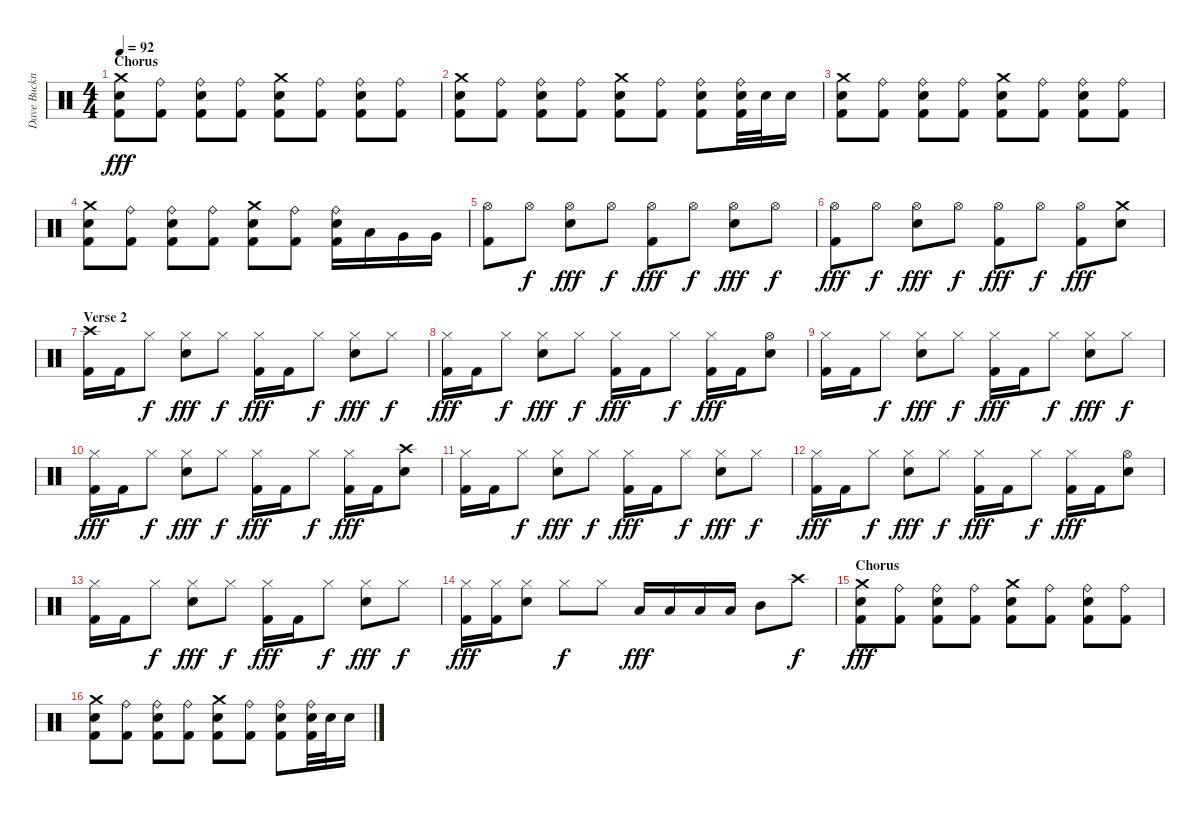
\track ("Dave Buckner" "Dave Buckn") {instrument percussion}
\staff {score}
\articulation defaults
\ts (4 4)
\section ("" "Chorus")
\tempo 92
\clef neutral
\ks c
("Crash medium (hit)" "Electric Snare (hit)" "Kick (hit) 2").8{dy fff} ("Ride (bell)" "Kick (hit) 2").8 ("Ride (bell)" "Electric Snare (hit)" "Kick (hit) 2").8 ("Ride (bell)" "Kick (hit) 2").8 ("Crash medium (hit)" "Electric Snare (hit)" "Kick (hit) 2").8 ("Ride (bell)" "Kick (hit) 2").8 ("Ride (bell)" "Electric Snare (hit)" "Kick (hit) 2").8 ("Ride (bell)" "Kick (hit) 2").8 |
("Crash medium (hit)" "Electric Snare (hit)" "Kick (hit) 2").8 ("Ride (bell)" "Kick (hit) 2").8 ("Ride (bell)" "Electric Snare (hit)" "Kick (hit) 2").8 ("Ride (bell)" "Kick (hit) 2").8 ("Crash medium (hit)" "Electric Snare (hit)" "Kick (hit) 2").8 ("Ride (bell)" "Kick (hit) 2").8 ("Ride (bell)" "Electric Snare (hit)" "Kick (hit) 2").8 ("Ride (bell)" "Electric Snare (hit)" "Kick (hit) 2").32 "Electric Snare (hit)".32 "Electric Snare (hit)".16 |
("Crash medium (hit)" "Electric Snare (hit)" "Kick (hit) 2").8 ("Ride (bell)" "Kick (hit) 2").8 ("Ride (bell)" "Electric Snare (hit)" "Kick (hit) 2").8 ("Ride (bell)" "Kick (hit) 2").8 ("Crash medium (hit)" "Electric Snare (hit)" "Kick (hit) 2").8 ("Ride (bell)" "Kick (hit) 2").8 ("Ride (bell)" "Electric Snare (hit)" "Kick (hit) 2").8 ("Ride (bell)" "Kick (hit) 2").8 |
("Crash medium (hit)" "Electric Snare (hit)" "Kick (hit) 2").8 ("Ride (bell)" "Kick (hit) 2").8 ("Ride (bell)" "Electric Snare (hit)" "Kick (hit) 2").8 ("Ride (bell)" "Kick (hit) 2").8 ("Crash medium (hit)" "Electric Snare (hit)" "Kick (hit) 2").8 ("Ride (bell)" "Kick (hit) 2").8 ("Ride (bell)" "Electric Snare (hit)" "Kick (hit) 2").16 "Low Tom (hit)".16 "Very Low Tom (hit)".16 "Very Low Tom (hit)".16 |
("Hi-Hat (open)" "Kick (hit) 2").8 "Hi-Hat (open)".8{dy f} ("Hi-Hat (open)" "Electric Snare (hit)").8{dy fff} "Hi-Hat (open)".8{dy f} ("Hi-Hat (open)" "Kick (hit) 2").8{dy fff} "Hi-Hat (open)".8{dy f} ("Hi-Hat (open)" "Electric Snare (hit)").8{dy fff} "Hi-Hat (open)".8{dy f} |
("Hi-Hat (open)" "Kick (hit) 2").8{dy fff} "Hi-Hat (open)".8{dy f} ("Hi-Hat (open)" "Electric Snare (hit)").8{dy fff} "Hi-Hat (open)".8{dy f} ("Hi-Hat (open)" "Kick (hit) 2").8{dy fff} "Hi-Hat (open)".8{dy f} ("Hi-Hat (open)" "Kick (hit) 2").8{dy fff} ("Crash medium (hit)" "Electric Snare (hit)").8 |
\section ("" "Verse 2")
("Crash high (hit)" "Kick (hit) 2").16 "Kick (hit) 2".16 "Hi-Hat (closed)".8{dy f} ("Hi-Hat (closed)" "Electric Snare (hit)").8{dy fff} "Hi-Hat (closed)".8{dy f} ("Hi-Hat (closed)" "Kick (hit) 2").16{dy fff} "Kick (hit) 2".16 "Hi-Hat (closed)".8{dy f} ("Hi-Hat (closed)" "Electric Snare (hit)").8{dy fff} "Hi-Hat (closed)".8{dy f} |
("Hi-Hat (closed)" "Kick (hit) 2").16{dy fff} "Kick (hit) 2".16 "Hi-Hat (closed)".8{dy f} ("Hi-Hat (closed)" "Electric Snare (hit)").8{dy fff} "Hi-Hat (closed)".8{dy f} ("Hi-Hat (closed)" "Kick (hit) 2").16{dy fff} "Kick (hit) 2".16 "Hi-Hat (closed)".8{dy f} ("Hi-Hat (closed)" "Kick (hit) 2").16{dy fff} "Kick (hit) 2".16 ("Hi-Hat (open)" "Electric Snare (hit)").8 |
("Hi-Hat (closed)" "Kick (hit) 2").16 "Kick (hit) 2".16 "Hi-Hat (closed)".8{dy f} ("Hi-Hat (closed)" "Electric Snare (hit)").8{dy fff} "Hi-Hat (closed)".8{dy f} ("Hi-Hat (closed)" "Kick (hit) 2").16{dy fff} "Kick (hit) 2".16 "Hi-Hat (closed)".8{dy f} ("Hi-Hat (closed)" "Electric Snare (hit)").8{dy fff} "Hi-Hat (closed)".8{dy f} |
("Hi-Hat (closed)" "Kick (hit) 2").16{dy fff} "Kick (hit) 2".16 "Hi-Hat (closed)".8{dy f} ("Hi-Hat (closed)" "Electric Snare (hit)").8{dy fff} "Hi-Hat (closed)".8{dy f} ("Hi-Hat (closed)" "Kick (hit) 2").16{dy fff} "Kick (hit) 2".16 "Hi-Hat (closed)".8{dy f} ("Hi-Hat (closed)" "Kick (hit) 2").16{dy fff} "Kick (hit) 2".16 ("Crash high (hit)" "Electric Snare (hit)").8 |
("Hi-Hat (closed)" "Kick (hit) 2").16 "Kick (hit) 2".16 "Hi-Hat (closed)".8{dy f} ("Hi-Hat (closed)" "Electric Snare (hit)").8{dy fff} "Hi-Hat (closed)".8{dy f} ("Hi-Hat (closed)" "Kick (hit) 2").16{dy fff} "Kick (hit) 2".16 "Hi-Hat (closed)".8{dy f} ("Hi-Hat (closed)" "Electric Snare (hit)").8{dy fff} "Hi-Hat (closed)".8{dy f} |
("Hi-Hat (closed)" "Kick (hit) 2").16{dy fff} "Kick (hit) 2".16 "Hi-Hat (closed)".8{dy f} ("Hi-Hat (closed)" "Electric Snare (hit)").8{dy fff} "Hi-Hat (closed)".8{dy f} ("Hi-Hat (closed)" "Kick (hit) 2").16{dy fff} "Kick (hit) 2".16 "Hi-Hat (closed)".8{dy f} ("Hi-Hat (closed)" "Kick (hit) 2").16{dy fff} "Kick (hit) 2".16 ("Hi-Hat (open)" "Electric Snare (hit)").8 |
("Hi-Hat (closed)" "Kick (hit) 2").16 "Kick (hit) 2".16 "Hi-Hat (closed)".8{dy f} ("Hi-Hat (closed)" "Electric Snare (hit)").8{dy fff} "Hi-Hat (closed)".8{dy f} ("Hi-Hat (closed)" "Kick (hit) 2").16{dy fff} "Kick (hit) 2".16 "Hi-Hat (closed)".8{dy f} ("Hi-Hat (closed)" "Electric Snare (hit)").8{dy fff} "Hi-Hat (closed)".8{dy f} |
("Hi-Hat (closed)" "Kick (hit) 2").16{dy fff} ("Hi-Hat (closed)" "Kick (hit) 2").16 ("Hi-Hat (closed)" "Electric Snare (hit)").8 "Hi-Hat (closed)".8{dy f} "Hi-Hat (closed)".8 "Low Tom (hit)".16{dy fff} "Low Tom (hit)".16 "Low Tom (hit)".16 "Low Tom (hit)".16 "Mid Tom (hit)".8 "Crash high (hit)".8{dy f} |
\section ("" "Chorus")
("Crash medium (hit)" "Electric Snare (hit)" "Kick (hit) 2").8{dy fff} ("Ride (bell)" "Kick (hit) 2").8 ("Ride (bell)" "Electric Snare (hit)" "Kick (hit) 2").8 ("Ride (bell)" "Kick (hit) 2").8 ("Crash medium (hit)" "Electric Snare (hit)" "Kick (hit) 2").8 ("Ride (bell)" "Kick (hit) 2").8 ("Ride (bell)" "Electric Snare (hit)" "Kick (hit) 2").8 ("Ride (bell)" "Kick (hit) 2").8 |
("Crash medium (hit)" "Electric Snare (hit)" "Kick (hit) 2").8 ("Ride (bell)" "Kick (hit) 2").8 ("Ride (bell)" "Electric Snare (hit)" "Kick (hit) 2").8 ("Ride (bell)" "Kick (hit) 2").8 ("Crash medium (hit)" "Electric Snare (hit)" "Kick (hit) 2").8 ("Ride (bell)" "Kick (hit) 2").8 ("Ride (bell)" "Electric Snare (hit)" "Kick (hit) 2").8 ("Ride (bell)" "Electric Snare (hit)" "Kick (hit) 2").32 "Electric Snare (hit)".32 "Electric Snare (hit)".16
